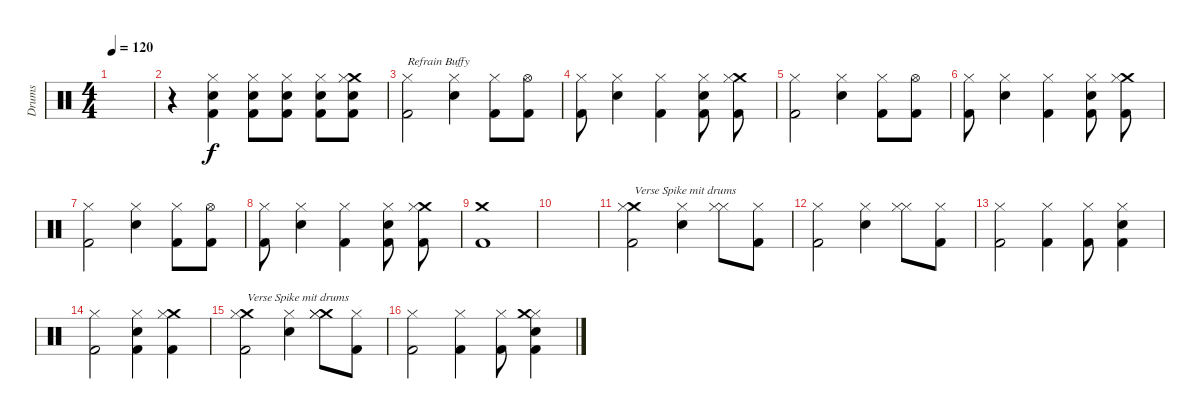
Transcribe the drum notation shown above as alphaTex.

\track ("Drums" "Drums") {instrument percussion}
\staff {score}
\articulation defaults
\ts (4 4)
\tempo 120
\clef neutral
\ks c
|
r.4 ("Kick (hit) 2" "Electric Snare (hit)" "Hi-Hat (closed)").4 ("Kick (hit) 2" "Electric Snare (hit)" "Hi-Hat (closed)").8 ("Kick (hit) 2" "Electric Snare (hit)" "Hi-Hat (closed)").8 ("Kick (hit) 2" "Electric Snare (hit)" "Hi-Hat (closed)").8 ("Kick (hit) 2" "Crash medium (hit)" "Electric Snare (hit)" "Hi-Hat (closed)").8 |
("Kick (hit) 2" "Hi-Hat (closed)").2{txt "Refrain Buffy"} ("Electric Snare (hit)" "Hi-Hat (closed)").4 ("Kick (hit) 2" "Hi-Hat (closed)").8 ("Kick (hit) 2" "Hi-Hat (open)").8 |
("Kick (hit) 2" "Hi-Hat (closed)").8 ("Electric Snare (hit)" "Hi-Hat (closed)").4 ("Kick (hit) 2" "Hi-Hat (closed)").4 ("Kick (hit) 2" "Electric Snare (hit)" "Hi-Hat (closed)").8 ("Kick (hit) 2" "Crash medium (hit)" "Hi-Hat (closed)").8 |
("Kick (hit) 2" "Hi-Hat (closed)").2 ("Electric Snare (hit)" "Hi-Hat (closed)").4 ("Kick (hit) 2" "Hi-Hat (closed)").8 ("Kick (hit) 2" "Hi-Hat (open)").8 |
("Kick (hit) 2" "Hi-Hat (closed)").8 ("Electric Snare (hit)" "Hi-Hat (closed)").4 ("Kick (hit) 2" "Hi-Hat (closed)").4 ("Kick (hit) 2" "Electric Snare (hit)" "Hi-Hat (closed)").8 ("Kick (hit) 2" "Crash medium (hit)" "Hi-Hat (closed)").8 |
("Kick (hit) 2" "Hi-Hat (closed)").2 ("Electric Snare (hit)" "Hi-Hat (closed)").4 ("Kick (hit) 2" "Hi-Hat (closed)").8 ("Kick (hit) 2" "Hi-Hat (open)").8 |
("Kick (hit) 2" "Hi-Hat (closed)").8 ("Electric Snare (hit)" "Hi-Hat (closed)").4 ("Kick (hit) 2" "Hi-Hat (closed)").4 ("Kick (hit) 2" "Electric Snare (hit)" "Hi-Hat (closed)").8 ("Kick (hit) 2" "Crash medium (hit)" "Hi-Hat (closed)").8 |
("Kick (hit) 2" "Crash medium (hit)").1 |
|
("Kick (hit) 2" "Crash medium (hit)" "Hi-Hat (closed)").2{txt "Verse Spike mit drums" volume 7} ("Electric Snare (hit)" "Hi-Hat (closed)").4 ("Hi-Hat (closed)" "Hi-Hat (closed)").8 ("Kick (hit) 2" "Hi-Hat (closed)").8 |
("Kick (hit) 2" "Hi-Hat (closed)").2 ("Electric Snare (hit)" "Hi-Hat (closed)").4 ("Hi-Hat (closed)" "Hi-Hat (closed)").8 ("Kick (hit) 2" "Hi-Hat (closed)").8 |
("Kick (hit) 2" "Hi-Hat (closed)").2 ("Kick (hit) 2" "Hi-Hat (closed)").4 ("Kick (hit) 2" "Hi-Hat (closed)").8 ("Kick (hit) 2" "Hi-Hat (closed)" "Electric Snare (hit)").4 |
("Kick (hit) 2" "Hi-Hat (closed)").2 ("Kick (hit) 2" "Hi-Hat (closed)" "Electric Snare (hit)").4 ("Kick (hit) 2" "Crash medium (hit)" "Hi-Hat (closed)").4 |
("Kick (hit) 2" "Crash medium (hit)" "Hi-Hat (closed)").2{txt "Verse Spike mit drums"} ("Electric Snare (hit)" "Hi-Hat (closed)").4 ("Crash medium (hit)" "Hi-Hat (closed)" "Hi-Hat (closed)").8 ("Kick (hit) 2" "Hi-Hat (closed)").8 |
("Kick (hit) 2" "Hi-Hat (closed)").2 ("Kick (hit) 2" "Hi-Hat (closed)").4 ("Kick (hit) 2" "Hi-Hat (closed)").8 ("Kick (hit) 2" "Hi-Hat (closed)" "Electric Snare (hit)" "Crash medium (hit)").4
